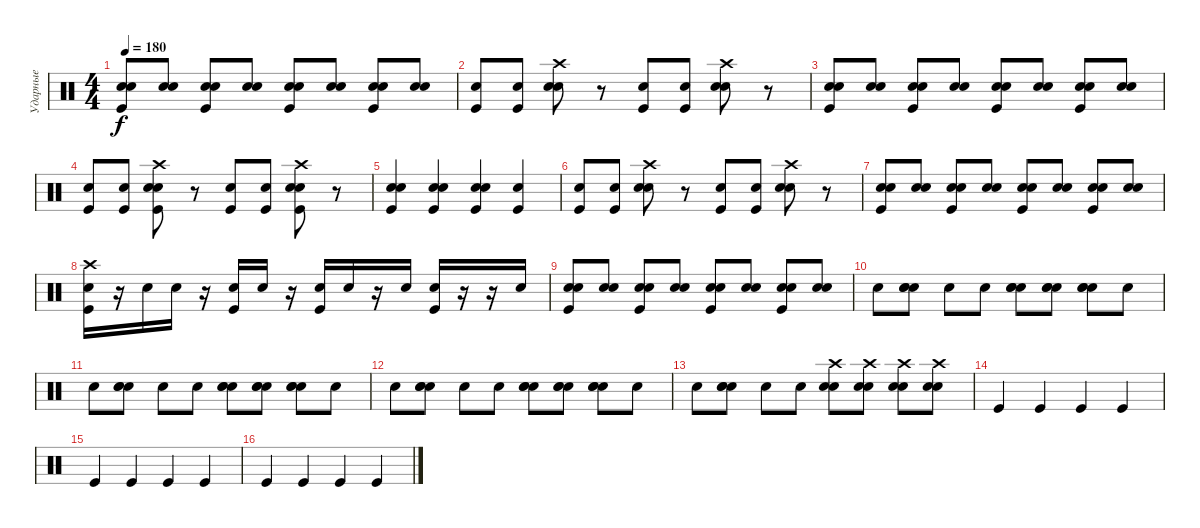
\track ("Ударные" "Ударные") {instrument percussion}
\staff {score}
\articulation defaults
\ts (4 4)
\tempo 180
\clef neutral
\ks c
("Kick (hit)" "Electric Snare (hit)" "Snare (hit) 2").8{dy f} ("Electric Snare (hit)" "Snare (hit) 2").8 ("Kick (hit)" "Electric Snare (hit)" "Snare (hit) 2").8 ("Electric Snare (hit)" "Snare (hit) 2").8 ("Kick (hit)" "Electric Snare (hit)" "Electric Snare (hit)").8 ("Electric Snare (hit)" "Electric Snare (hit)").8 ("Kick (hit)" "Electric Snare (hit)" "Electric Snare (hit)").8 ("Electric Snare (hit)" "Electric Snare (hit)").8 |
("Kick (hit)" "Electric Snare (hit)").8 ("Kick (hit)" "Electric Snare (hit)").8 ("Crash high (hit)" "Electric Snare (hit)" "Electric Snare (hit)").8 r.8 ("Kick (hit)" "Electric Snare (hit)").8 ("Kick (hit)" "Electric Snare (hit)").8 ("Crash high (hit)" "Electric Snare (hit)" "Electric Snare (hit)").8 r.8 |
("Kick (hit)" "Snare (hit) 2" "Electric Snare (hit)").8 ("Snare (hit) 2" "Electric Snare (hit)").8 ("Kick (hit)" "Snare (hit) 2" "Electric Snare (hit)").8 ("Snare (hit) 2" "Electric Snare (hit)").8 ("Kick (hit)" "Electric Snare (hit)" "Electric Snare (hit)").8 ("Electric Snare (hit)" "Electric Snare (hit)").8 ("Kick (hit)" "Electric Snare (hit)" "Electric Snare (hit)").8 ("Electric Snare (hit)" "Electric Snare (hit)").8 |
("Kick (hit)" "Electric Snare (hit)").8 ("Kick (hit)" "Electric Snare (hit)").8 ("Kick (hit)" "Crash high (hit)" "Electric Snare (hit)" "Electric Snare (hit)").8 r.8 ("Kick (hit)" "Electric Snare (hit)").8 ("Kick (hit)" "Electric Snare (hit)").8 ("Kick (hit)" "Crash high (hit)" "Electric Snare (hit)" "Electric Snare (hit)").8 r.8 |
("Electric Snare (hit)" "Electric Snare (hit)" "Kick (hit)").4 ("Electric Snare (hit)" "Electric Snare (hit)" "Kick (hit)").4 ("Electric Snare (hit)" "Kick (hit)" "Electric Snare (hit)").4 ("Electric Snare (hit)" "Kick (hit)").4 |
("Kick (hit)" "Electric Snare (hit)").8 ("Kick (hit)" "Electric Snare (hit)").8 ("Crash high (hit)" "Electric Snare (hit)" "Electric Snare (hit)").8 r.8 ("Kick (hit)" "Electric Snare (hit)").8 ("Kick (hit)" "Electric Snare (hit)").8 ("Crash high (hit)" "Electric Snare (hit)" "Electric Snare (hit)").8 r.8 |
("Kick (hit)" "Snare (hit) 2" "Electric Snare (hit)").8 ("Snare (hit) 2" "Electric Snare (hit)").8 ("Kick (hit)" "Snare (hit) 2" "Electric Snare (hit)").8 ("Snare (hit) 2" "Electric Snare (hit)").8 ("Kick (hit)" "Electric Snare (hit)" "Electric Snare (hit)").8 ("Electric Snare (hit)" "Electric Snare (hit)").8 ("Kick (hit)" "Electric Snare (hit)" "Electric Snare (hit)").8 ("Electric Snare (hit)" "Electric Snare (hit)").8 |
("Kick (hit)" "Crash high (hit)" "Electric Snare (hit)").16 r.16 "Electric Snare (hit)".16 "Electric Snare (hit)".16 r.16 ("Kick (hit)" "Electric Snare (hit)").16 "Electric Snare (hit)".16 r.16 ("Kick (hit)" "Electric Snare (hit)").16 "Electric Snare (hit)".16 r.16 "Electric Snare (hit)".16 ("Kick (hit)" "Electric Snare (hit)").16 r.16 r.16 "Electric Snare (hit)".16 |
("Kick (hit)" "Electric Snare (hit)" "Snare (hit) 2").8 ("Electric Snare (hit)" "Snare (hit) 2").8 ("Kick (hit)" "Electric Snare (hit)" "Snare (hit) 2").8 ("Electric Snare (hit)" "Snare (hit) 2").8 ("Kick (hit)" "Electric Snare (hit)" "Electric Snare (hit)").8 ("Electric Snare (hit)" "Electric Snare (hit)").8 ("Kick (hit)" "Electric Snare (hit)" "Electric Snare (hit)").8 ("Electric Snare (hit)" "Electric Snare (hit)").8 |
"Electric Snare (hit)".8 ("Snare (hit) 2" "Electric Snare (hit)" "Electric Snare (hit)").8 "Electric Snare (hit)".8 "Electric Snare (hit)".8 ("Snare (hit) 2" "Electric Snare (hit)" "Electric Snare (hit)").8 ("Snare (hit) 2" "Electric Snare (hit)" "Electric Snare (hit)").8 ("Snare (hit) 2" "Electric Snare (hit)" "Electric Snare (hit)").8 "Electric Snare (hit)".8 |
"Electric Snare (hit)".8 ("Snare (hit) 2" "Electric Snare (hit)" "Electric Snare (hit)").8 "Electric Snare (hit)".8 "Electric Snare (hit)".8 ("Snare (hit) 2" "Electric Snare (hit)" "Electric Snare (hit)").8 ("Snare (hit) 2" "Electric Snare (hit)" "Electric Snare (hit)").8 ("Snare (hit) 2" "Electric Snare (hit)" "Electric Snare (hit)").8 "Electric Snare (hit)".8 |
"Electric Snare (hit)".8 ("Snare (hit) 2" "Electric Snare (hit)" "Electric Snare (hit)").8 "Electric Snare (hit)".8 "Electric Snare (hit)".8 ("Snare (hit) 2" "Electric Snare (hit)" "Electric Snare (hit)").8 ("Snare (hit) 2" "Electric Snare (hit)" "Electric Snare (hit)").8 ("Snare (hit) 2" "Electric Snare (hit)" "Electric Snare (hit)").8 "Electric Snare (hit)".8 |
"Electric Snare (hit)".8 ("Snare (hit) 2" "Electric Snare (hit)" "Electric Snare (hit)").8 "Electric Snare (hit)".8 "Electric Snare (hit)".8 ("Crash high (hit)" "Electric Snare (hit)" "Electric Snare (hit)").8 ("Crash high (hit)" "Electric Snare (hit)" "Electric Snare (hit)").8 ("Crash high (hit)" "Electric Snare (hit)" "Electric Snare (hit)").8 ("Crash high (hit)" "Electric Snare (hit)" "Electric Snare (hit)").8 |
"Kick (hit)".4 "Kick (hit)".4 "Kick (hit)".4 "Kick (hit)".4 |
"Kick (hit)".4 "Kick (hit)".4 "Kick (hit)".4 "Kick (hit)".4 |
"Kick (hit)".4 "Kick (hit)".4 "Kick (hit)".4 "Kick (hit)".4
